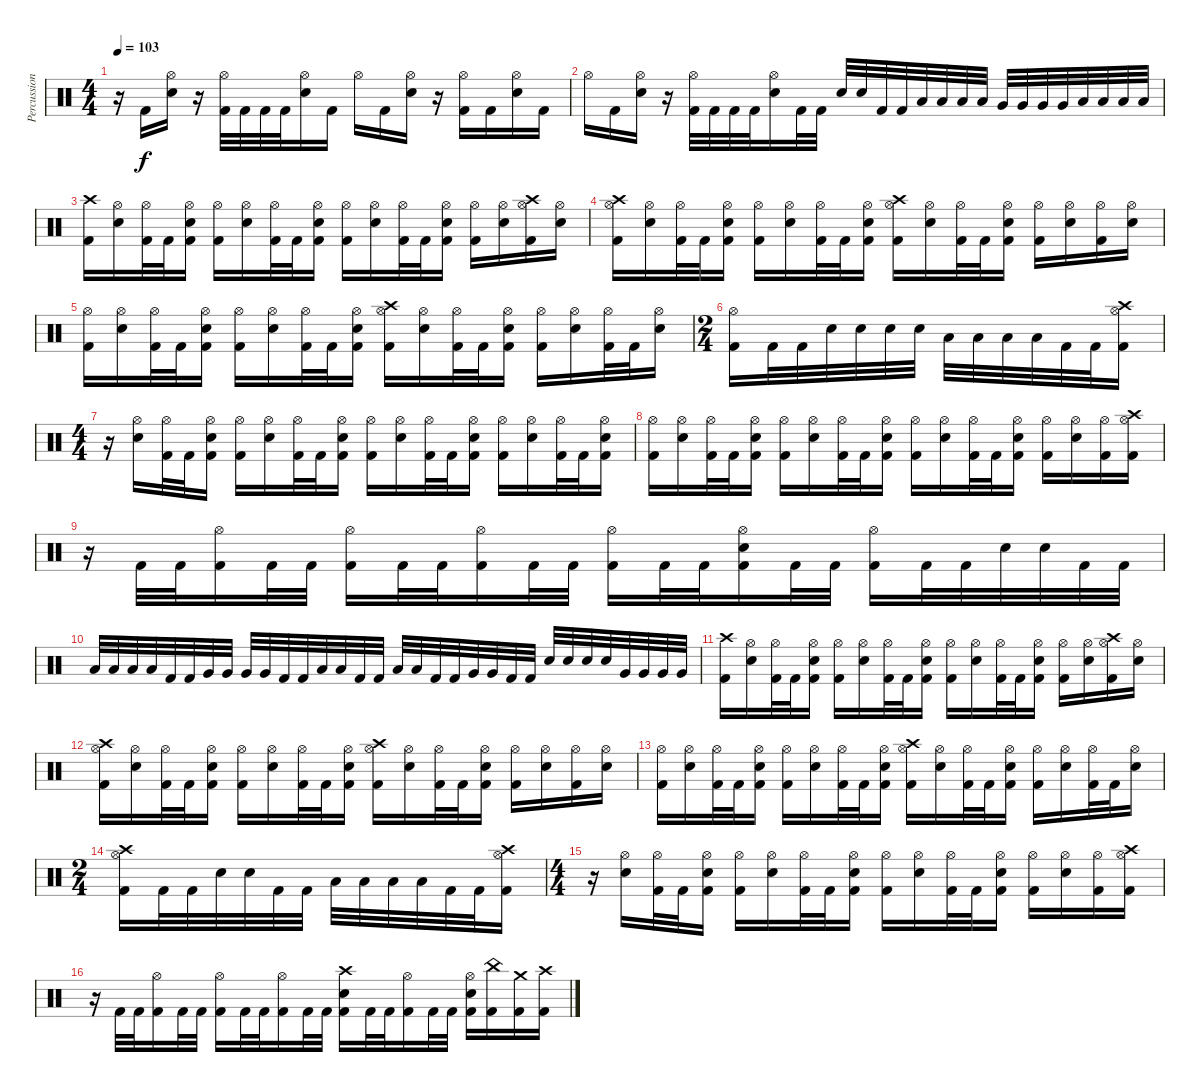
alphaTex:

\track ("Percussion" "Percussion") {instrument percussion}
\staff {score}
\articulation defaults
\ts (4 4)
\tempo 103
\clef neutral
\ks c
r.16{dy f} "Kick (hit) 2".16 ("Hi-Hat (open)" "Snare (hit) 2").16 r.16 ("Hi-Hat (open)" "Kick (hit) 2").32 "Kick (hit) 2".32 "Kick (hit) 2".32 "Kick (hit) 2".32 ("Hi-Hat (open)" "Snare (hit) 2").16 "Kick (hit) 2".16 "Hi-Hat (open)".16 "Kick (hit) 2".16 ("Hi-Hat (open)" "Snare (hit) 2").16 r.16 ("Hi-Hat (open)" "Kick (hit) 2").16 "Kick (hit) 2".16 ("Hi-Hat (open)" "Snare (hit) 2").16 "Kick (hit) 2".16 |
"Hi-Hat (open)".16 "Kick (hit) 2".16 ("Hi-Hat (open)" "Snare (hit) 2").16 r.16 ("Hi-Hat (open)" "Kick (hit) 2").32 "Kick (hit) 2".32 "Kick (hit) 2".32 "Kick (hit) 2".32 ("Hi-Hat (open)" "Snare (hit) 2").16 "Kick (hit) 2".32 "Kick (hit) 2".32 "Snare (hit) 2".32 "Snare (hit) 2".32 "Kick (hit) 2".32 "Kick (hit) 2".32 "Low Tom (hit)".32 "Low Tom (hit)".32 "Low Tom (hit)".32 "Low Tom (hit)".32 "Very Low Tom (hit)".32 "Very Low Tom (hit)".32 "Very Low Tom (hit)".32 "Very Low Tom (hit)".32 "Low Floor Tom (hit)".32 "Low Floor Tom (hit)".32 "Low Floor Tom (hit)".32 "Low Floor Tom (hit)".32 |
("Crash high (hit)" "Kick (hit) 2").16 ("Hi-Hat (open)" "Snare (hit) 2").16 ("Hi-Hat (open)" "Kick (hit) 2").32 "Kick (hit) 2".32 ("Hi-Hat (open)" "Snare (hit) 2" "Kick (hit) 2").16 ("Hi-Hat (open)" "Kick (hit) 2").16 ("Hi-Hat (open)" "Snare (hit) 2").16 ("Hi-Hat (open)" "Kick (hit) 2").32 "Kick (hit) 2".32 ("Hi-Hat (open)" "Snare (hit) 2" "Kick (hit) 2").16 ("Hi-Hat (open)" "Kick (hit) 2").16 ("Hi-Hat (open)" "Snare (hit) 2").16 ("Hi-Hat (open)" "Kick (hit) 2").32 "Kick (hit) 2".32 ("Hi-Hat (open)" "Snare (hit) 2" "Kick (hit) 2").16 ("Hi-Hat (open)" "Kick (hit) 2").16 ("Hi-Hat (open)" "Snare (hit) 2").16 ("Crash high (hit)" "Hi-Hat (open)" "Kick (hit) 2").16 ("Hi-Hat (open)" "Snare (hit) 2").16 |
("Crash high (hit)" "Hi-Hat (open)" "Kick (hit) 2").16 ("Hi-Hat (open)" "Snare (hit) 2").16 ("Hi-Hat (open)" "Kick (hit) 2").32 "Kick (hit) 2".32 ("Hi-Hat (open)" "Snare (hit) 2" "Kick (hit) 2").16 ("Hi-Hat (open)" "Kick (hit) 2").16 ("Hi-Hat (open)" "Snare (hit) 2").16 ("Hi-Hat (open)" "Kick (hit) 2").32 "Kick (hit) 2".32 ("Hi-Hat (open)" "Snare (hit) 2" "Kick (hit) 2").16 ("Crash high (hit)" "Hi-Hat (open)" "Kick (hit) 2").16 ("Hi-Hat (open)" "Snare (hit) 2").16 ("Hi-Hat (open)" "Kick (hit) 2").32 "Kick (hit) 2".32 ("Hi-Hat (open)" "Snare (hit) 2" "Kick (hit) 2").16 ("Hi-Hat (open)" "Kick (hit) 2").16 ("Hi-Hat (open)" "Snare (hit) 2").16 ("Hi-Hat (open)" "Kick (hit) 2").16 ("Hi-Hat (open)" "Snare (hit) 2").16 |
("Hi-Hat (open)" "Kick (hit) 2").16 ("Hi-Hat (open)" "Snare (hit) 2").16 ("Hi-Hat (open)" "Kick (hit) 2").32 "Kick (hit) 2".32 ("Hi-Hat (open)" "Snare (hit) 2" "Kick (hit) 2").16 ("Hi-Hat (open)" "Kick (hit) 2").16 ("Hi-Hat (open)" "Snare (hit) 2").16 ("Hi-Hat (open)" "Kick (hit) 2").32 "Kick (hit) 2".32 ("Hi-Hat (open)" "Snare (hit) 2" "Kick (hit) 2").16 ("Crash high (hit)" "Hi-Hat (open)" "Kick (hit) 2").16 ("Hi-Hat (open)" "Snare (hit) 2").16 ("Hi-Hat (open)" "Kick (hit) 2").32 "Kick (hit) 2".32 ("Hi-Hat (open)" "Snare (hit) 2" "Kick (hit) 2").16 ("Hi-Hat (open)" "Kick (hit) 2").16 ("Hi-Hat (open)" "Snare (hit) 2").16 ("Hi-Hat (open)" "Kick (hit) 2").32 "Kick (hit) 2".32 ("Hi-Hat (open)" "Snare (hit) 2").16 |
\ts (2 4)
("Hi-Hat (open)" "Kick (hit) 2").16 "Kick (hit) 2".32 "Kick (hit) 2".32 "Snare (hit) 2".32 "Snare (hit) 2".32 "Snare (hit) 2".32 "Snare (hit) 2".32 "Low Tom (hit)".32 "Low Tom (hit)".32 "Low Tom (hit)".32 "Low Tom (hit)".32 "Kick (hit) 2".32 "Kick (hit) 2".32 ("Crash high (hit)" "Hi-Hat (open)" "Kick (hit) 2").16 |
\ts (4 4)
r.16 ("Hi-Hat (open)" "Snare (hit) 2").16 ("Hi-Hat (open)" "Kick (hit) 2").32 "Kick (hit) 2".32 ("Hi-Hat (open)" "Snare (hit) 2" "Kick (hit) 2").16 ("Hi-Hat (open)" "Kick (hit) 2").16 ("Hi-Hat (open)" "Snare (hit) 2").16 ("Hi-Hat (open)" "Kick (hit) 2").32 "Kick (hit) 2".32 ("Hi-Hat (open)" "Snare (hit) 2" "Kick (hit) 2").16 ("Hi-Hat (open)" "Kick (hit) 2").16 ("Hi-Hat (open)" "Snare (hit) 2").16 ("Hi-Hat (open)" "Kick (hit) 2").32 "Kick (hit) 2".32 ("Hi-Hat (open)" "Snare (hit) 2" "Kick (hit) 2").16 ("Hi-Hat (open)" "Kick (hit) 2").16 ("Hi-Hat (open)" "Snare (hit) 2").16 ("Hi-Hat (open)" "Kick (hit) 2").32 "Kick (hit) 2".32 ("Hi-Hat (open)" "Snare (hit) 2" "Kick (hit) 2").16 |
("Hi-Hat (open)" "Kick (hit) 2").16 ("Hi-Hat (open)" "Snare (hit) 2").16 ("Hi-Hat (open)" "Kick (hit) 2").32 "Kick (hit) 2".32 ("Hi-Hat (open)" "Snare (hit) 2" "Kick (hit) 2").16 ("Hi-Hat (open)" "Kick (hit) 2").16 ("Hi-Hat (open)" "Snare (hit) 2").16 ("Hi-Hat (open)" "Kick (hit) 2").32 "Kick (hit) 2".32 ("Hi-Hat (open)" "Snare (hit) 2" "Kick (hit) 2").16 ("Hi-Hat (open)" "Kick (hit) 2").16 ("Hi-Hat (open)" "Snare (hit) 2").16 ("Hi-Hat (open)" "Kick (hit) 2").32 "Kick (hit) 2".32 ("Hi-Hat (open)" "Snare (hit) 2" "Kick (hit) 2").16 ("Hi-Hat (open)" "Kick (hit) 2").16 ("Hi-Hat (open)" "Snare (hit) 2").16 ("Hi-Hat (open)" "Kick (hit) 2").16 ("Crash high (hit)" "Hi-Hat (open)" "Kick (hit) 2").16 |
r.16 "Kick (hit) 2".32 "Kick (hit) 2".32 ("Hi-Hat (open)" "Kick (hit) 2").16 "Kick (hit) 2".32 "Kick (hit) 2".32 ("Hi-Hat (open)" "Kick (hit) 2").16 "Kick (hit) 2".32 "Kick (hit) 2".32 ("Hi-Hat (open)" "Kick (hit) 2").16 "Kick (hit) 2".32 "Kick (hit) 2".32 ("Hi-Hat (open)" "Kick (hit) 2").16 "Kick (hit) 2".32 "Kick (hit) 2".32 ("Hi-Hat (open)" "Snare (hit) 2" "Kick (hit) 2").16 "Kick (hit) 2".32 "Kick (hit) 2".32 ("Hi-Hat (open)" "Kick (hit) 2").16 "Kick (hit) 2".32 "Kick (hit) 2".32 "Snare (hit) 2".32 "Snare (hit) 2".32 "Kick (hit) 2".32 "Kick (hit) 2".32 |
"Low Tom (hit)".32 "Low Tom (hit)".32 "Low Tom (hit)".32 "Low Tom (hit)".32 "Kick (hit) 2".32 "Kick (hit) 2".32 "Very Low Tom (hit)".32 "Very Low Tom (hit)".32 "Very Low Tom (hit)".32 "Very Low Tom (hit)".32 "Kick (hit) 2".32 "Kick (hit) 2".32 "Low Floor Tom (hit)".32 "Low Floor Tom (hit)".32 "Kick (hit) 2".32 "Kick (hit) 2".32 "Low Tom (hit)".32 "Low Tom (hit)".32 "Kick (hit) 2".32 "Kick (hit) 2".32 "Very Low Tom (hit)".32 "Very Low Tom (hit)".32 "Kick (hit) 2".32 "Kick (hit) 2".32 "Snare (hit) 2".32 "Snare (hit) 2".32 "Snare (hit) 2".32 "Snare (hit) 2".32 "Very Low Tom (hit)".32 "Very Low Tom (hit)".32 "Very Low Tom (hit)".32 "Very Low Tom (hit)".32 |
("Crash high (hit)" "Kick (hit) 2").16 ("Hi-Hat (open)" "Snare (hit) 2").16 ("Hi-Hat (open)" "Kick (hit) 2").32 "Kick (hit) 2".32 ("Hi-Hat (open)" "Snare (hit) 2" "Kick (hit) 2").16 ("Hi-Hat (open)" "Kick (hit) 2").16 ("Hi-Hat (open)" "Snare (hit) 2").16 ("Hi-Hat (open)" "Kick (hit) 2").32 "Kick (hit) 2".32 ("Hi-Hat (open)" "Snare (hit) 2" "Kick (hit) 2").16 ("Hi-Hat (open)" "Kick (hit) 2").16 ("Hi-Hat (open)" "Snare (hit) 2").16 ("Hi-Hat (open)" "Kick (hit) 2").32 "Kick (hit) 2".32 ("Hi-Hat (open)" "Snare (hit) 2" "Kick (hit) 2").16 ("Hi-Hat (open)" "Kick (hit) 2").16 ("Hi-Hat (open)" "Snare (hit) 2").16 ("Crash high (hit)" "Hi-Hat (open)" "Kick (hit) 2").16 ("Hi-Hat (open)" "Snare (hit) 2").16 |
("Crash high (hit)" "Hi-Hat (open)" "Kick (hit) 2").16 ("Hi-Hat (open)" "Snare (hit) 2").16 ("Hi-Hat (open)" "Kick (hit) 2").32 "Kick (hit) 2".32 ("Hi-Hat (open)" "Snare (hit) 2" "Kick (hit) 2").16 ("Hi-Hat (open)" "Kick (hit) 2").16 ("Hi-Hat (open)" "Snare (hit) 2").16 ("Hi-Hat (open)" "Kick (hit) 2").32 "Kick (hit) 2".32 ("Hi-Hat (open)" "Snare (hit) 2" "Kick (hit) 2").16 ("Crash high (hit)" "Hi-Hat (open)" "Kick (hit) 2").16 ("Hi-Hat (open)" "Snare (hit) 2").16 ("Hi-Hat (open)" "Kick (hit) 2").32 "Kick (hit) 2".32 ("Hi-Hat (open)" "Snare (hit) 2" "Kick (hit) 2").16 ("Hi-Hat (open)" "Kick (hit) 2").16 ("Hi-Hat (open)" "Snare (hit) 2").16 ("Hi-Hat (open)" "Kick (hit) 2").16 ("Hi-Hat (open)" "Snare (hit) 2").16 |
("Hi-Hat (open)" "Kick (hit) 2").16 ("Hi-Hat (open)" "Snare (hit) 2").16 ("Hi-Hat (open)" "Kick (hit) 2").32 "Kick (hit) 2".32 ("Hi-Hat (open)" "Snare (hit) 2" "Kick (hit) 2").16 ("Hi-Hat (open)" "Kick (hit) 2").16 ("Hi-Hat (open)" "Snare (hit) 2").16 ("Hi-Hat (open)" "Kick (hit) 2").32 "Kick (hit) 2".32 ("Hi-Hat (open)" "Snare (hit) 2" "Kick (hit) 2").16 ("Crash high (hit)" "Hi-Hat (open)" "Kick (hit) 2").16 ("Hi-Hat (open)" "Snare (hit) 2").16 ("Hi-Hat (open)" "Kick (hit) 2").32 "Kick (hit) 2".32 ("Hi-Hat (open)" "Snare (hit) 2" "Kick (hit) 2").16 ("Hi-Hat (open)" "Kick (hit) 2").16 ("Hi-Hat (open)" "Snare (hit) 2").16 ("Hi-Hat (open)" "Kick (hit) 2").32 "Kick (hit) 2".32 ("Hi-Hat (open)" "Snare (hit) 2").16 |
\ts (2 4)
("Crash high (hit)" "Hi-Hat (open)" "Kick (hit) 2").16 "Kick (hit) 2".32 "Kick (hit) 2".32 "Snare (hit) 2".32 "Snare (hit) 2".32 "Kick (hit) 2".32 "Kick (hit) 2".32 "Low Tom (hit)".32 "Low Tom (hit)".32 "Low Tom (hit)".32 "Low Tom (hit)".32 "Kick (hit) 2".32 "Kick (hit) 2".32 ("Crash high (hit)" "Hi-Hat (open)" "Kick (hit) 2").16 |
\ts (4 4)
r.16 ("Hi-Hat (open)" "Snare (hit) 2").16 ("Hi-Hat (open)" "Kick (hit) 2").32 "Kick (hit) 2".32 ("Hi-Hat (open)" "Snare (hit) 2" "Kick (hit) 2").16 ("Hi-Hat (open)" "Kick (hit) 2").16 ("Hi-Hat (open)" "Snare (hit) 2").16 ("Hi-Hat (open)" "Kick (hit) 2").32 "Kick (hit) 2".32 ("Hi-Hat (open)" "Snare (hit) 2" "Kick (hit) 2").16 ("Hi-Hat (open)" "Kick (hit) 2").16 ("Hi-Hat (open)" "Snare (hit) 2").16 ("Hi-Hat (open)" "Kick (hit) 2").32 "Kick (hit) 2".32 ("Hi-Hat (open)" "Snare (hit) 2" "Kick (hit) 2").16 ("Hi-Hat (open)" "Kick (hit) 2").16 ("Hi-Hat (open)" "Snare (hit) 2").16 ("Hi-Hat (open)" "Kick (hit) 2").16 ("Crash high (hit)" "Hi-Hat (open)" "Kick (hit) 2").16 |
r.16 "Kick (hit) 2".32 "Kick (hit) 2".32 ("Hi-Hat (open)" "Kick (hit) 2").16 "Kick (hit) 2".32 "Kick (hit) 2".32 ("Hi-Hat (open)" "Kick (hit) 2").16 "Kick (hit) 2".32 "Kick (hit) 2".32 ("Hi-Hat (open)" "Kick (hit) 2").16 "Kick (hit) 2".32 "Kick (hit) 2".32 ("Crash high (hit)" "Snare (hit) 2" "Kick (hit) 2").16 "Kick (hit) 2".32 "Kick (hit) 2".32 ("Hi-Hat (open)" "Kick (hit) 2").16 "Kick (hit) 2".32 "Kick (hit) 2".32 ("Hi-Hat (open)" "Snare (hit) 2" "Kick (hit) 2").16 ("China (hit)" "Kick (hit) 2").16 ("Crash medium (hit)" "Kick (hit) 2").16 ("Crash high (hit)" "Kick (hit) 2").16
